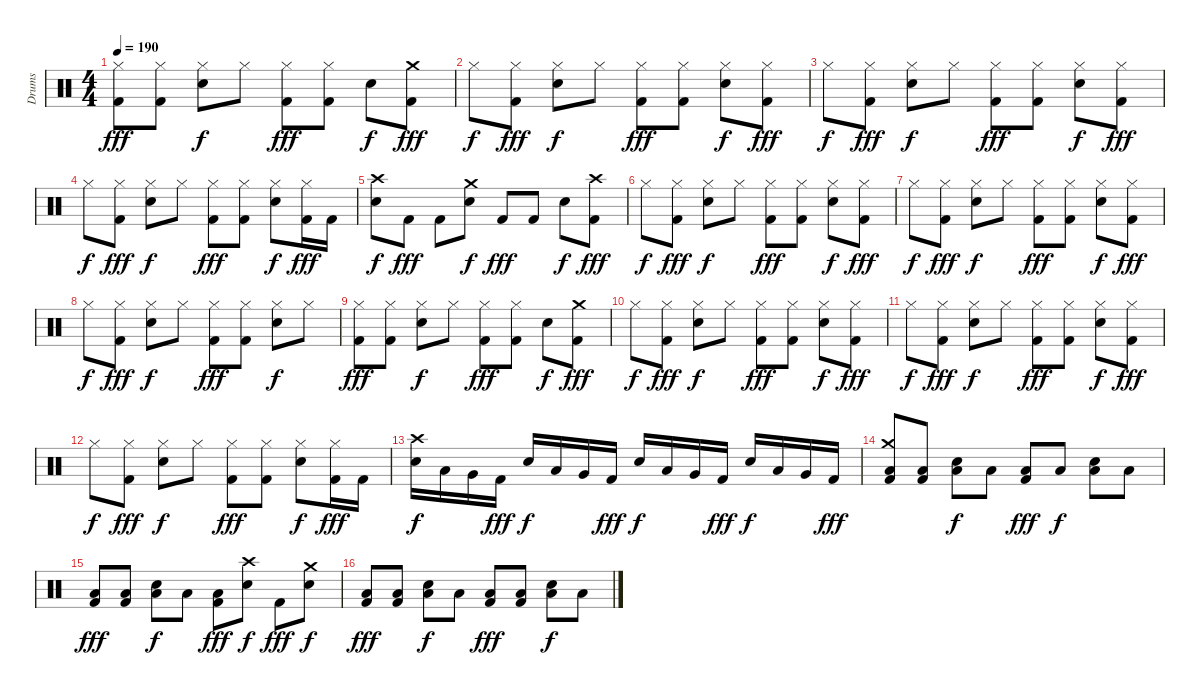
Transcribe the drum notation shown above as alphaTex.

\track ("Drums" "Drums") {instrument percussion}
\staff {score}
\articulation defaults
\ts (4 4)
\tempo 190
\clef neutral
\ks c
("Hi-Hat (closed)" "Kick (hit) 2").8{dy fff} ("Hi-Hat (closed)" "Kick (hit) 2").8 ("Hi-Hat (closed)" "Electric Snare (hit)").8{dy f} "Hi-Hat (closed)".8 ("Hi-Hat (closed)" "Kick (hit) 2").8{dy fff} ("Hi-Hat (closed)" "Kick (hit) 2").8 "Electric Snare (hit)".8{dy f} ("Crash medium (hit)" "Kick (hit) 2").8{dy fff} |
"Hi-Hat (closed)".8{dy f} ("Hi-Hat (closed)" "Kick (hit) 2").8{dy fff} ("Hi-Hat (closed)" "Electric Snare (hit)").8{dy f} "Hi-Hat (closed)".8 ("Hi-Hat (closed)" "Kick (hit) 2").8{dy fff} ("Hi-Hat (closed)" "Kick (hit) 2").8 ("Hi-Hat (closed)" "Electric Snare (hit)").8{dy f} ("Hi-Hat (closed)" "Kick (hit) 2").8{dy fff} |
"Hi-Hat (closed)".8{dy f} ("Hi-Hat (closed)" "Kick (hit) 2").8{dy fff} ("Hi-Hat (closed)" "Electric Snare (hit)").8{dy f} "Hi-Hat (closed)".8 ("Hi-Hat (closed)" "Kick (hit) 2").8{dy fff} ("Hi-Hat (closed)" "Kick (hit) 2").8 ("Hi-Hat (closed)" "Electric Snare (hit)").8{dy f} ("Hi-Hat (closed)" "Kick (hit) 2").8{dy fff} |
"Hi-Hat (closed)".8{dy f} ("Hi-Hat (closed)" "Kick (hit) 2").8{dy fff} ("Hi-Hat (closed)" "Electric Snare (hit)").8{dy f} "Hi-Hat (closed)".8 ("Hi-Hat (closed)" "Kick (hit) 2").8{dy fff} ("Hi-Hat (closed)" "Kick (hit) 2").8 ("Hi-Hat (closed)" "Electric Snare (hit)").8{dy f} ("Hi-Hat (closed)" "Kick (hit) 2").16{dy fff} "Kick (hit) 2".16 |
("Crash high (hit)" "Electric Snare (hit)").8{dy f} "Kick (hit) 2".8{dy fff} "Kick (hit) 2".8 ("Crash medium (hit)" "Electric Snare (hit)").8{dy f} "Kick (hit) 2".8{dy fff} "Kick (hit) 2".8 "Electric Snare (hit)".8{dy f} ("Crash high (hit)" "Kick (hit) 2").8{dy fff} |
"Hi-Hat (closed)".8{dy f} ("Hi-Hat (closed)" "Kick (hit) 2").8{dy fff} ("Hi-Hat (closed)" "Electric Snare (hit)").8{dy f} "Hi-Hat (closed)".8 ("Hi-Hat (closed)" "Kick (hit) 2").8{dy fff} ("Hi-Hat (closed)" "Kick (hit) 2").8 ("Hi-Hat (closed)" "Electric Snare (hit)").8{dy f} ("Hi-Hat (closed)" "Kick (hit) 2").8{dy fff} |
"Hi-Hat (closed)".8{dy f} ("Hi-Hat (closed)" "Kick (hit) 2").8{dy fff} ("Hi-Hat (closed)" "Electric Snare (hit)").8{dy f} "Hi-Hat (closed)".8 ("Hi-Hat (closed)" "Kick (hit) 2").8{dy fff} ("Hi-Hat (closed)" "Kick (hit) 2").8 ("Hi-Hat (closed)" "Electric Snare (hit)").8{dy f} ("Hi-Hat (closed)" "Kick (hit) 2").8{dy fff} |
"Hi-Hat (closed)".8{dy f} ("Hi-Hat (closed)" "Kick (hit) 2").8{dy fff} ("Hi-Hat (closed)" "Electric Snare (hit)").8{dy f} "Hi-Hat (closed)".8 ("Hi-Hat (closed)" "Kick (hit) 2").8{dy fff} ("Hi-Hat (closed)" "Kick (hit) 2").8 ("Hi-Hat (closed)" "Electric Snare (hit)").8{dy f} "Hi-Hat (closed)".8 |
("Hi-Hat (closed)" "Kick (hit) 2").8{dy fff} ("Hi-Hat (closed)" "Kick (hit) 2").8 ("Hi-Hat (closed)" "Electric Snare (hit)").8{dy f} "Hi-Hat (closed)".8 ("Hi-Hat (closed)" "Kick (hit) 2").8{dy fff} ("Hi-Hat (closed)" "Kick (hit) 2").8 "Electric Snare (hit)".8{dy f} ("Crash medium (hit)" "Kick (hit) 2").8{dy fff} |
"Hi-Hat (closed)".8{dy f} ("Hi-Hat (closed)" "Kick (hit) 2").8{dy fff} ("Hi-Hat (closed)" "Electric Snare (hit)").8{dy f} "Hi-Hat (closed)".8 ("Hi-Hat (closed)" "Kick (hit) 2").8{dy fff} ("Hi-Hat (closed)" "Kick (hit) 2").8 ("Hi-Hat (closed)" "Electric Snare (hit)").8{dy f} ("Hi-Hat (closed)" "Kick (hit) 2").8{dy fff} |
"Hi-Hat (closed)".8{dy f} ("Hi-Hat (closed)" "Kick (hit) 2").8{dy fff} ("Hi-Hat (closed)" "Electric Snare (hit)").8{dy f} "Hi-Hat (closed)".8 ("Hi-Hat (closed)" "Kick (hit) 2").8{dy fff} ("Hi-Hat (closed)" "Kick (hit) 2").8 ("Hi-Hat (closed)" "Electric Snare (hit)").8{dy f} ("Hi-Hat (closed)" "Kick (hit) 2").8{dy fff} |
"Hi-Hat (closed)".8{dy f} ("Hi-Hat (closed)" "Kick (hit) 2").8{dy fff} ("Hi-Hat (closed)" "Electric Snare (hit)").8{dy f} "Hi-Hat (closed)".8 ("Hi-Hat (closed)" "Kick (hit) 2").8{dy fff} ("Hi-Hat (closed)" "Kick (hit) 2").8 ("Hi-Hat (closed)" "Electric Snare (hit)").8{dy f} ("Hi-Hat (closed)" "Kick (hit) 2").16{dy fff} "Kick (hit) 2".16 |
("Crash high (hit)" "Electric Snare (hit)").16{dy f} "Low Tom (hit)".16 "Very Low Tom (hit)".16 "Kick (hit) 2".16{dy fff} "Electric Snare (hit)".16{dy f} "Low Tom (hit)".16 "Very Low Tom (hit)".16 "Kick (hit) 2".16{dy fff} "Electric Snare (hit)".16{dy f} "Low Tom (hit)".16 "Very Low Tom (hit)".16 "Kick (hit) 2".16{dy fff} "Electric Snare (hit)".16{dy f} "Low Tom (hit)".16 "Very Low Tom (hit)".16 "Kick (hit) 2".16{dy fff} |
("Crash medium (hit)" "Low Floor Tom (hit)" "Kick (hit) 2").8 ("Low Floor Tom (hit)" "Kick (hit) 2").8 ("Electric Snare (hit)" "Low Floor Tom (hit)").8{dy f} "Low Floor Tom (hit)".8 ("Low Floor Tom (hit)" "Kick (hit) 2").8{dy fff} "Low Floor Tom (hit)".8{dy f} ("Electric Snare (hit)" "Low Floor Tom (hit)").8 "Low Floor Tom (hit)".8 |
("Low Floor Tom (hit)" "Kick (hit) 2").8{dy fff} ("Low Floor Tom (hit)" "Kick (hit) 2").8 ("Electric Snare (hit)" "Low Floor Tom (hit)").8{dy f} "Low Floor Tom (hit)".8 ("Low Floor Tom (hit)" "Kick (hit) 2").8{dy fff} ("Crash high (hit)" "Electric Snare (hit)").8{dy f} "Kick (hit) 2".8{dy fff} ("Crash medium (hit)" "Electric Snare (hit)").8{dy f} |
("Low Floor Tom (hit)" "Kick (hit) 2").8{dy fff} ("Low Floor Tom (hit)" "Kick (hit) 2").8 ("Electric Snare (hit)" "Low Floor Tom (hit)").8{dy f} "Low Floor Tom (hit)".8 ("Low Floor Tom (hit)" "Kick (hit) 2").8{dy fff} ("Low Floor Tom (hit)" "Kick (hit) 2").8 ("Electric Snare (hit)" "Low Floor Tom (hit)").8{dy f} "Low Floor Tom (hit)".8
